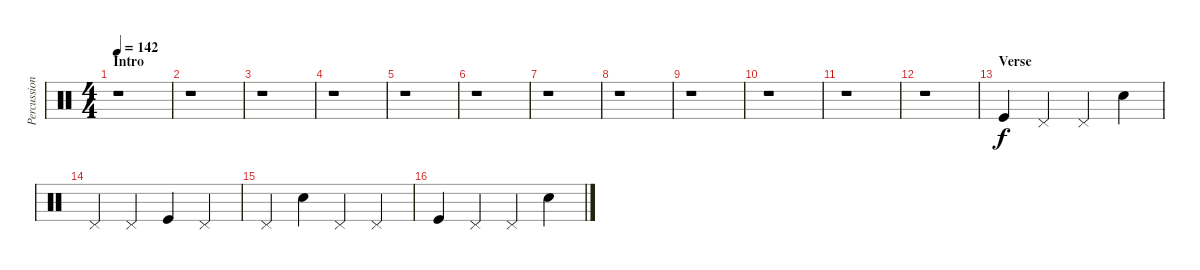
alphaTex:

\track ("Percussion" "Percussion") {instrument percussion}
\staff {score}
\articulation defaults
\ts (4 4)
\section ("" "Intro")
\tempo 142
\clef neutral
\ks c
r.1{dy f} |
r.1 |
r.1 |
r.1 |
r.1 |
r.1 |
r.1 |
r.1 |
r.1 |
r.1 |
r.1 |
r.1 |
\section ("" "Verse")
"Kick (hit)".4 "Pedal Hi-Hat (hit)".4 "Pedal Hi-Hat (hit)".4 "Electric Snare (hit)".4 |
"Pedal Hi-Hat (hit)".4 "Pedal Hi-Hat (hit)".4 "Kick (hit)".4 "Pedal Hi-Hat (hit)".4 |
"Pedal Hi-Hat (hit)".4 "Electric Snare (hit)".4 "Pedal Hi-Hat (hit)".4 "Pedal Hi-Hat (hit)".4 |
"Kick (hit)".4 "Pedal Hi-Hat (hit)".4 "Pedal Hi-Hat (hit)".4 "Electric Snare (hit)".4
